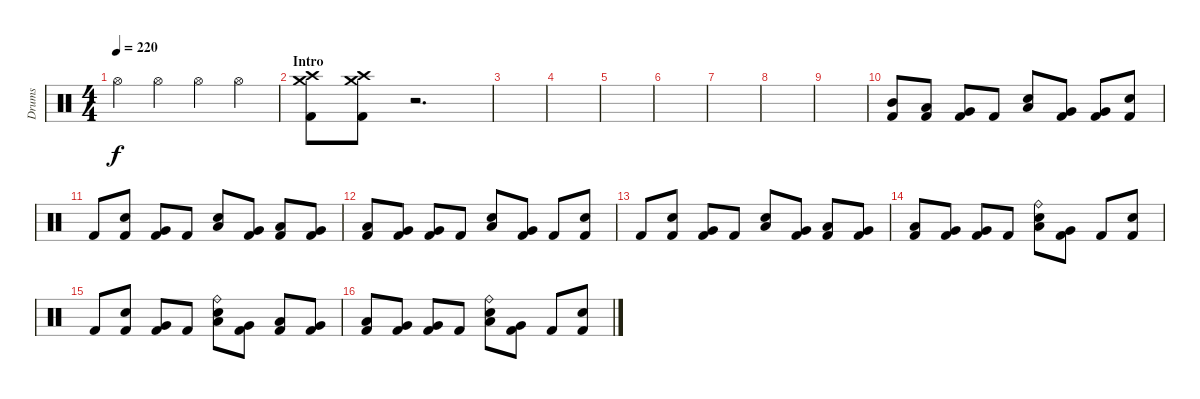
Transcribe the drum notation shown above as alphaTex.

\track ("Drums" "Drums") {instrument percussion}
\staff {score}
\articulation defaults
\ts (4 4)
\tempo 220
\clef neutral
\ks c "Hi-Hat (open)".4{dy f} "Hi-Hat (open)".4 "Hi-Hat (open)".4 "Hi-Hat (open)".4
|
\section ("" "Intro")
("Crash high (hit)" "Crash medium (hit)" "Kick (hit) 2").8 ("Crash high (hit)" "Crash medium (hit)" "Kick (hit) 2").8 r.2{d} |
|
|
|
|
|
|
|
("Mid Tom (hit)" "Kick (hit) 2").8 ("Low Tom (hit)" "Kick (hit) 2").8 ("Very Low Tom (hit)" "Kick (hit) 2").8 "Kick (hit) 2".8 ("Low Floor Tom (hit)" "Electric Snare (hit)").8 ("Very Low Tom (hit)" "Kick (hit) 2").8 ("Very Low Tom (hit)" "Kick (hit) 2").8 ("Electric Snare (hit)" "Kick (hit) 2").8 |
"Kick (hit) 2".8 ("Electric Snare (hit)" "Kick (hit) 2").8 ("Very Low Tom (hit)" "Kick (hit) 2").8 "Kick (hit) 2".8 ("Low Floor Tom (hit)" "Electric Snare (hit)").8 ("Very Low Tom (hit)" "Kick (hit) 2").8 ("Low Tom (hit)" "Kick (hit) 2").8 ("Very Low Tom (hit)" "Kick (hit) 2").8 |
("Low Tom (hit)" "Kick (hit) 2").8 ("Very Low Tom (hit)" "Kick (hit) 2").8 ("Very Low Tom (hit)" "Kick (hit) 2").8 "Kick (hit) 2".8 ("Low Floor Tom (hit)" "Electric Snare (hit)").8 ("Very Low Tom (hit)" "Kick (hit) 2").8 "Kick (hit) 2".8 ("Electric Snare (hit)" "Kick (hit) 2").8 |
"Kick (hit) 2".8 ("Electric Snare (hit)" "Kick (hit) 2").8 ("Very Low Tom (hit)" "Kick (hit) 2").8 "Kick (hit) 2".8 ("Low Floor Tom (hit)" "Electric Snare (hit)").8 ("Very Low Tom (hit)" "Kick (hit) 2").8 ("Low Tom (hit)" "Kick (hit) 2").8 ("Very Low Tom (hit)" "Kick (hit) 2").8 |
("Low Tom (hit)" "Kick (hit) 2").8 ("Very Low Tom (hit)" "Kick (hit) 2").8 ("Very Low Tom (hit)" "Kick (hit) 2").8 "Kick (hit) 2".8 ("Ride (bell)" "Low Floor Tom (hit)" "Electric Snare (hit)").8 ("Very Low Tom (hit)" "Kick (hit) 2").8 "Kick (hit) 2".8 ("Electric Snare (hit)" "Kick (hit) 2").8 |
"Kick (hit) 2".8 ("Electric Snare (hit)" "Kick (hit) 2").8 ("Very Low Tom (hit)" "Kick (hit) 2").8 "Kick (hit) 2".8 ("Ride (bell)" "Low Floor Tom (hit)" "Electric Snare (hit)").8 ("Very Low Tom (hit)" "Kick (hit) 2").8 ("Low Tom (hit)" "Kick (hit) 2").8 ("Very Low Tom (hit)" "Kick (hit) 2").8 |
("Low Tom (hit)" "Kick (hit) 2").8 ("Very Low Tom (hit)" "Kick (hit) 2").8 ("Very Low Tom (hit)" "Kick (hit) 2").8 "Kick (hit) 2".8 ("Ride (bell)" "Low Floor Tom (hit)" "Electric Snare (hit)").8 ("Very Low Tom (hit)" "Kick (hit) 2").8 "Kick (hit) 2".8 ("Electric Snare (hit)" "Kick (hit) 2").8
